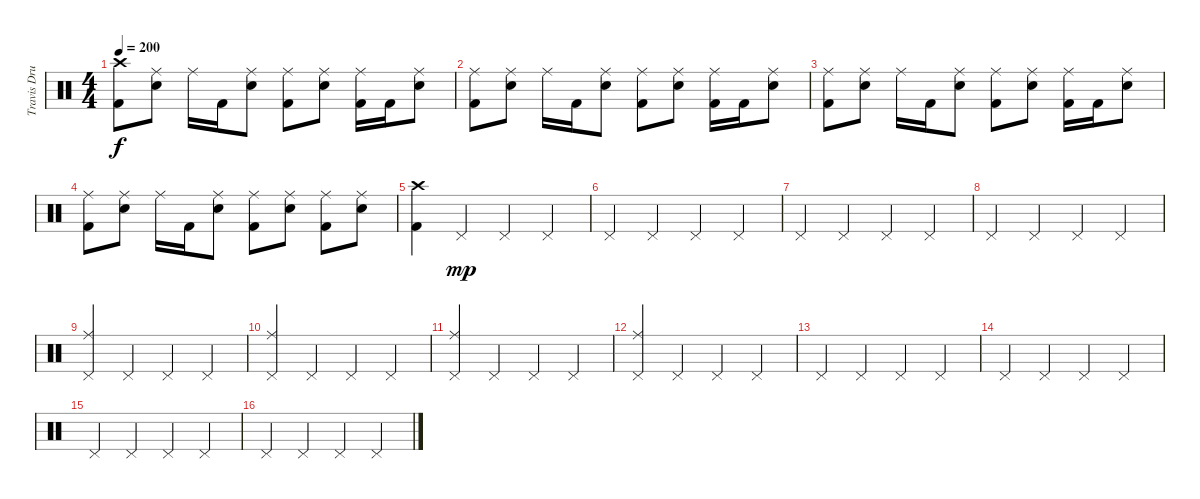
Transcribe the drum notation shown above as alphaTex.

\track ("Travis Drums" "Travis Dru") {instrument percussion}
\staff {score}
\articulation defaults
\ts (4 4)
\tempo 200
\clef neutral
\ks c
("Crash high (hit)" "Kick (hit) 2").8{dy f} ("Ride (middle)" "Electric Snare (hit)").8 "Ride (middle)".16 "Kick (hit) 2".16 ("Ride (middle)" "Electric Snare (hit)").8 ("Ride (middle)" "Kick (hit) 2").8 ("Ride (middle)" "Electric Snare (hit)").8 ("Ride (middle)" "Kick (hit) 2").16 "Kick (hit) 2".16 ("Ride (middle)" "Electric Snare (hit)").8 |
("Ride (middle)" "Kick (hit) 2").8 ("Ride (middle)" "Electric Snare (hit)").8 "Ride (middle)".16 "Kick (hit) 2".16 ("Ride (middle)" "Electric Snare (hit)").8 ("Ride (middle)" "Kick (hit) 2").8 ("Ride (middle)" "Electric Snare (hit)").8 ("Ride (middle)" "Kick (hit) 2").16 "Kick (hit) 2".16 ("Ride (middle)" "Electric Snare (hit)").8 |
("Ride (middle)" "Kick (hit) 2").8 ("Ride (middle)" "Electric Snare (hit)").8 "Ride (middle)".16 "Kick (hit) 2".16 ("Ride (middle)" "Electric Snare (hit)").8 ("Ride (middle)" "Kick (hit) 2").8 ("Ride (middle)" "Electric Snare (hit)").8 ("Ride (middle)" "Kick (hit) 2").16 "Kick (hit) 2".16 ("Ride (middle)" "Electric Snare (hit)").8 |
("Ride (middle)" "Kick (hit) 2").8 ("Ride (middle)" "Electric Snare (hit)").8 "Ride (middle)".16 "Kick (hit) 2".16 ("Ride (middle)" "Electric Snare (hit)").8 ("Ride (middle)" "Kick (hit) 2").8 ("Ride (middle)" "Electric Snare (hit)").8 ("Ride (middle)" "Kick (hit) 2").8 ("Ride (middle)" "Electric Snare (hit)").8 |
("Crash high (hit)" "Kick (hit) 2").4 "Pedal Hi-Hat (hit)".4{dy mp} "Pedal Hi-Hat (hit)".4 "Pedal Hi-Hat (hit)".4 |
"Pedal Hi-Hat (hit)".4 "Pedal Hi-Hat (hit)".4 "Pedal Hi-Hat (hit)".4 "Pedal Hi-Hat (hit)".4 |
"Pedal Hi-Hat (hit)".4 "Pedal Hi-Hat (hit)".4 "Pedal Hi-Hat (hit)".4 "Pedal Hi-Hat (hit)".4 |
"Pedal Hi-Hat (hit)".4 "Pedal Hi-Hat (hit)".4 "Pedal Hi-Hat (hit)".4 "Pedal Hi-Hat (hit)".4 |
("Ride (middle)" "Pedal Hi-Hat (hit)").4 "Pedal Hi-Hat (hit)".4 "Pedal Hi-Hat (hit)".4 "Pedal Hi-Hat (hit)".4 |
("Ride (middle)" "Pedal Hi-Hat (hit)").4 "Pedal Hi-Hat (hit)".4 "Pedal Hi-Hat (hit)".4 "Pedal Hi-Hat (hit)".4 |
("Ride (middle)" "Pedal Hi-Hat (hit)").4 "Pedal Hi-Hat (hit)".4 "Pedal Hi-Hat (hit)".4 "Pedal Hi-Hat (hit)".4 |
("Ride (middle)" "Pedal Hi-Hat (hit)").4 "Pedal Hi-Hat (hit)".4 "Pedal Hi-Hat (hit)".4 "Pedal Hi-Hat (hit)".4 |
"Pedal Hi-Hat (hit)".4 "Pedal Hi-Hat (hit)".4 "Pedal Hi-Hat (hit)".4 "Pedal Hi-Hat (hit)".4 |
"Pedal Hi-Hat (hit)".4 "Pedal Hi-Hat (hit)".4 "Pedal Hi-Hat (hit)".4 "Pedal Hi-Hat (hit)".4 |
"Pedal Hi-Hat (hit)".4 "Pedal Hi-Hat (hit)".4 "Pedal Hi-Hat (hit)".4 "Pedal Hi-Hat (hit)".4 |
"Pedal Hi-Hat (hit)".4 "Pedal Hi-Hat (hit)".4 "Pedal Hi-Hat (hit)".4 "Pedal Hi-Hat (hit)".4
